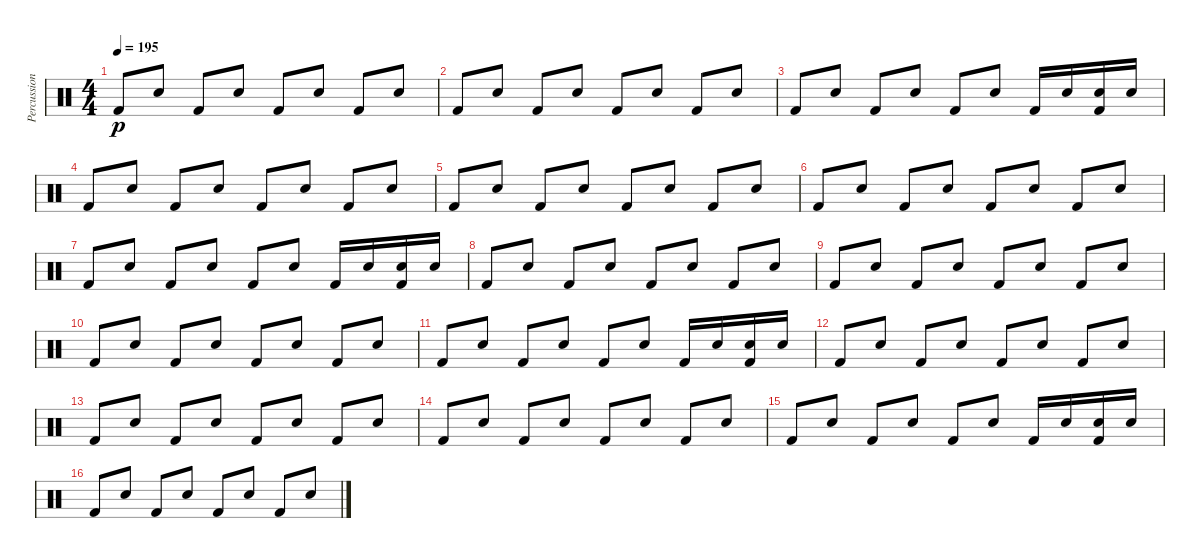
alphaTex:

\track ("Percussion" "Percussion") {instrument percussion}
\staff {score}
\articulation defaults
\ts (4 4)
\tempo 195
\clef neutral
\ks c "Kick (hit) 2".8{dy p} "Snare (hit) 2".8 "Kick (hit) 2".8 "Snare (hit) 2".8 "Kick (hit) 2".8 "Snare (hit) 2".8 "Kick (hit) 2".8 "Snare (hit) 2".8
|
"Kick (hit) 2".8 "Snare (hit) 2".8 "Kick (hit) 2".8 "Snare (hit) 2".8 "Kick (hit) 2".8 "Snare (hit) 2".8 "Kick (hit) 2".8 "Snare (hit) 2".8 |
"Kick (hit) 2".8 "Snare (hit) 2".8 "Kick (hit) 2".8 "Snare (hit) 2".8 "Kick (hit) 2".8 "Snare (hit) 2".8 "Kick (hit) 2".16 "Snare (hit) 2".16 ("Kick (hit) 2" "Snare (hit) 2").16 "Snare (hit) 2".16 |
"Kick (hit) 2".8 "Snare (hit) 2".8 "Kick (hit) 2".8 "Snare (hit) 2".8 "Kick (hit) 2".8 "Snare (hit) 2".8 "Kick (hit) 2".8 "Snare (hit) 2".8 |
"Kick (hit) 2".8 "Snare (hit) 2".8 "Kick (hit) 2".8 "Snare (hit) 2".8 "Kick (hit) 2".8 "Snare (hit) 2".8 "Kick (hit) 2".8 "Snare (hit) 2".8 |
"Kick (hit) 2".8 "Snare (hit) 2".8 "Kick (hit) 2".8 "Snare (hit) 2".8 "Kick (hit) 2".8 "Snare (hit) 2".8 "Kick (hit) 2".8 "Snare (hit) 2".8 |
"Kick (hit) 2".8 "Snare (hit) 2".8 "Kick (hit) 2".8 "Snare (hit) 2".8 "Kick (hit) 2".8 "Snare (hit) 2".8 "Kick (hit) 2".16 "Snare (hit) 2".16 ("Kick (hit) 2" "Snare (hit) 2").16 "Snare (hit) 2".16 |
"Kick (hit) 2".8 "Snare (hit) 2".8 "Kick (hit) 2".8 "Snare (hit) 2".8 "Kick (hit) 2".8 "Snare (hit) 2".8 "Kick (hit) 2".8 "Snare (hit) 2".8 |
"Kick (hit) 2".8 "Snare (hit) 2".8 "Kick (hit) 2".8 "Snare (hit) 2".8 "Kick (hit) 2".8 "Snare (hit) 2".8 "Kick (hit) 2".8 "Snare (hit) 2".8 |
"Kick (hit) 2".8 "Snare (hit) 2".8 "Kick (hit) 2".8 "Snare (hit) 2".8 "Kick (hit) 2".8 "Snare (hit) 2".8 "Kick (hit) 2".8 "Snare (hit) 2".8 |
"Kick (hit) 2".8 "Snare (hit) 2".8 "Kick (hit) 2".8 "Snare (hit) 2".8 "Kick (hit) 2".8 "Snare (hit) 2".8 "Kick (hit) 2".16 "Snare (hit) 2".16 ("Kick (hit) 2" "Snare (hit) 2").16 "Snare (hit) 2".16 |
"Kick (hit) 2".8 "Snare (hit) 2".8 "Kick (hit) 2".8 "Snare (hit) 2".8 "Kick (hit) 2".8 "Snare (hit) 2".8 "Kick (hit) 2".8 "Snare (hit) 2".8 |
"Kick (hit) 2".8 "Snare (hit) 2".8 "Kick (hit) 2".8 "Snare (hit) 2".8 "Kick (hit) 2".8 "Snare (hit) 2".8 "Kick (hit) 2".8 "Snare (hit) 2".8 |
"Kick (hit) 2".8 "Snare (hit) 2".8 "Kick (hit) 2".8 "Snare (hit) 2".8 "Kick (hit) 2".8 "Snare (hit) 2".8 "Kick (hit) 2".8 "Snare (hit) 2".8 |
"Kick (hit) 2".8 "Snare (hit) 2".8 "Kick (hit) 2".8 "Snare (hit) 2".8 "Kick (hit) 2".8 "Snare (hit) 2".8 "Kick (hit) 2".16 "Snare (hit) 2".16 ("Kick (hit) 2" "Snare (hit) 2").16 "Snare (hit) 2".16 |
"Kick (hit) 2".8 "Snare (hit) 2".8 "Kick (hit) 2".8 "Snare (hit) 2".8 "Kick (hit) 2".8 "Snare (hit) 2".8 "Kick (hit) 2".8 "Snare (hit) 2".8
